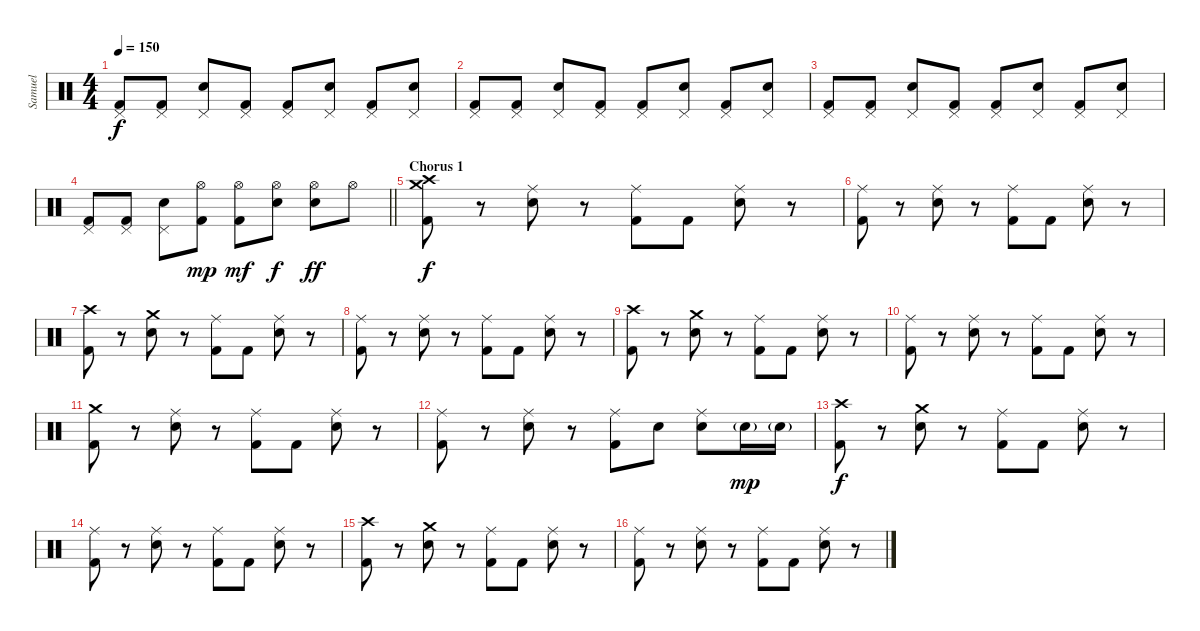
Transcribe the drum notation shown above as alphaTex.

\track ("Samuel" "Samuel") {instrument percussion}
\staff {score}
\articulation defaults
\ts (4 4)
\tempo 150
\clef neutral
\ks c
("Pedal Hi-Hat (hit)" "Kick (hit) 2").8{dy f} ("Pedal Hi-Hat (hit)" "Kick (hit) 2").8 ("Pedal Hi-Hat (hit)" "Snare (hit) 2").8 ("Pedal Hi-Hat (hit)" "Kick (hit) 2").8 ("Pedal Hi-Hat (hit)" "Kick (hit) 2").8 ("Pedal Hi-Hat (hit)" "Snare (hit) 2").8 ("Pedal Hi-Hat (hit)" "Kick (hit) 2").8 ("Pedal Hi-Hat (hit)" "Snare (hit) 2").8 |
("Pedal Hi-Hat (hit)" "Kick (hit) 2").8 ("Pedal Hi-Hat (hit)" "Kick (hit) 2").8 ("Pedal Hi-Hat (hit)" "Snare (hit) 2").8 ("Pedal Hi-Hat (hit)" "Kick (hit) 2").8 ("Pedal Hi-Hat (hit)" "Kick (hit) 2").8 ("Pedal Hi-Hat (hit)" "Snare (hit) 2").8 ("Pedal Hi-Hat (hit)" "Kick (hit) 2").8 ("Pedal Hi-Hat (hit)" "Snare (hit) 2").8 |
("Pedal Hi-Hat (hit)" "Kick (hit) 2").8 ("Pedal Hi-Hat (hit)" "Kick (hit) 2").8 ("Pedal Hi-Hat (hit)" "Snare (hit) 2").8 ("Pedal Hi-Hat (hit)" "Kick (hit) 2").8 ("Pedal Hi-Hat (hit)" "Kick (hit) 2").8 ("Pedal Hi-Hat (hit)" "Snare (hit) 2").8 ("Pedal Hi-Hat (hit)" "Kick (hit) 2").8 ("Pedal Hi-Hat (hit)" "Snare (hit) 2").8 |
\barLineRight lightlight
("Pedal Hi-Hat (hit)" "Kick (hit) 2").8 ("Pedal Hi-Hat (hit)" "Kick (hit) 2").8 ("Pedal Hi-Hat (hit)" "Snare (hit) 2").8 ("Hi-Hat (open)" "Kick (hit) 2").8{dy mp} ("Hi-Hat (open)" "Kick (hit) 2").8{dy mf} ("Hi-Hat (open)" "Snare (hit) 2").8{dy f} ("Hi-Hat (open)" "Snare (hit) 2").8{dy ff} "Hi-Hat (open)".8 |
\section ("" "Chorus 1")
("Crash medium (hit)" "Crash high (hit)" "Kick (hit) 2").8{dy f} r.8 ("Ride (middle)" "Snare (hit) 2").8 r.8 ("Ride (middle)" "Kick (hit) 2").8 "Kick (hit) 2".8 ("Ride (middle)" "Snare (hit) 2").8 r.8 |
("Ride (middle)" "Kick (hit) 2").8 r.8 ("Ride (middle)" "Snare (hit) 2").8 r.8 ("Ride (middle)" "Kick (hit) 2").8 "Kick (hit) 2".8 ("Ride (middle)" "Snare (hit) 2").8 r.8 |
("Crash high (hit)" "Kick (hit) 2").8 r.8 ("Crash medium (hit)" "Snare (hit) 2").8 r.8 ("Ride (middle)" "Kick (hit) 2").8 "Kick (hit) 2".8 ("Ride (middle)" "Snare (hit) 2").8 r.8 |
("Ride (middle)" "Kick (hit) 2").8 r.8 ("Ride (middle)" "Snare (hit) 2").8 r.8 ("Ride (middle)" "Kick (hit) 2").8 "Kick (hit) 2".8 ("Ride (middle)" "Snare (hit) 2").8 r.8 |
("Crash high (hit)" "Kick (hit) 2").8 r.8 ("Crash medium (hit)" "Snare (hit) 2").8 r.8 ("Ride (middle)" "Kick (hit) 2").8 "Kick (hit) 2".8 ("Ride (middle)" "Snare (hit) 2").8 r.8 |
("Ride (middle)" "Kick (hit) 2").8 r.8 ("Ride (middle)" "Snare (hit) 2").8 r.8 ("Ride (middle)" "Kick (hit) 2").8 "Kick (hit) 2".8 ("Ride (middle)" "Snare (hit) 2").8 r.8 |
("Crash medium (hit)" "Kick (hit) 2").8 r.8 ("Ride (middle)" "Snare (hit) 2").8 r.8 ("Ride (middle)" "Kick (hit) 2").8 "Kick (hit) 2".8 ("Ride (middle)" "Snare (hit) 2").8 r.8 |
("Ride (middle)" "Kick (hit) 2").8 r.8 ("Ride (middle)" "Snare (hit) 2").8 r.8 ("Ride (middle)" "Kick (hit) 2").8 "Snare (hit) 2".8 ("Ride (middle)" "Snare (hit) 2").8 "Snare (hit) 2"{g}.16{dy mp} "Snare (hit) 2"{g}.16 |
("Crash high (hit)" "Kick (hit) 2").8{dy f} r.8 ("Crash medium (hit)" "Snare (hit) 2").8 r.8 ("Ride (middle)" "Kick (hit) 2").8 "Kick (hit) 2".8 ("Ride (middle)" "Snare (hit) 2").8 r.8 |
("Ride (middle)" "Kick (hit) 2").8 r.8 ("Ride (middle)" "Snare (hit) 2").8 r.8 ("Ride (middle)" "Kick (hit) 2").8 "Kick (hit) 2".8 ("Ride (middle)" "Snare (hit) 2").8 r.8 |
("Crash high (hit)" "Kick (hit) 2").8 r.8 ("Crash medium (hit)" "Snare (hit) 2").8 r.8 ("Ride (middle)" "Kick (hit) 2").8 "Kick (hit) 2".8 ("Ride (middle)" "Snare (hit) 2").8 r.8 |
("Ride (middle)" "Kick (hit) 2").8 r.8 ("Ride (middle)" "Snare (hit) 2").8 r.8 ("Ride (middle)" "Kick (hit) 2").8 "Kick (hit) 2".8 ("Ride (middle)" "Snare (hit) 2").8 r.8
